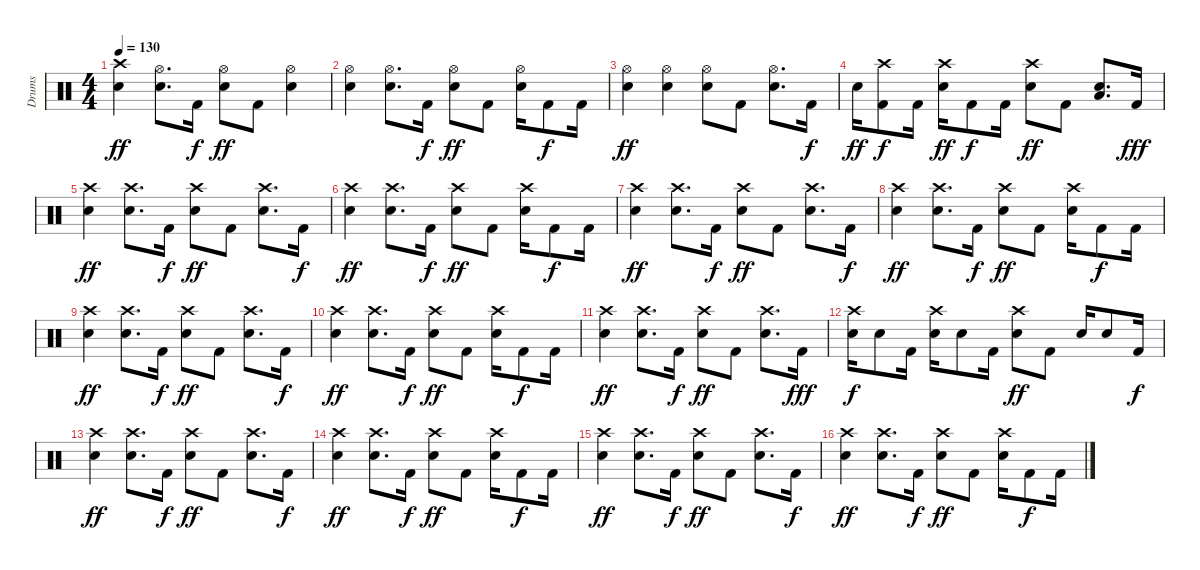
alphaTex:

\track ("Drums" "Drums") {instrument percussion}
\staff {score}
\articulation defaults
\ts (4 4)
\tempo 130
\clef neutral
\ks c
("Crash high (hit)" "Electric Snare (hit)").4{dy ff} ("Hi-Hat (open)" "Electric Snare (hit)").8{d} "Kick (hit) 2".16{dy f} ("Hi-Hat (open)" "Electric Snare (hit)").8{dy ff} "Kick (hit) 2".8 ("Hi-Hat (open)" "Electric Snare (hit)").4 |
("Hi-Hat (open)" "Electric Snare (hit)").4 ("Hi-Hat (open)" "Electric Snare (hit)").8{d} "Kick (hit) 2".16{dy f} ("Hi-Hat (open)" "Electric Snare (hit)").8{dy ff} "Kick (hit) 2".8 ("Hi-Hat (open)" "Electric Snare (hit)").16 "Kick (hit) 2".8{dy f} "Kick (hit) 2".16 |
("Hi-Hat (open)" "Electric Snare (hit)").4{dy ff} ("Hi-Hat (open)" "Electric Snare (hit)").4 ("Hi-Hat (open)" "Electric Snare (hit)").8 "Kick (hit) 2".8 ("Hi-Hat (open)" "Electric Snare (hit)").8{d} "Kick (hit) 2".16{dy f} |
"Electric Snare (hit)".16{dy ff} ("Crash high (hit)" "Kick (hit) 2").8{dy f} "Kick (hit) 2".16 ("Crash high (hit)" "Electric Snare (hit)").16{dy ff} "Kick (hit) 2".8{dy f} "Kick (hit) 2".16 ("Crash high (hit)" "Electric Snare (hit)").8{dy ff} "Kick (hit) 2".8 ("Electric Snare (hit)" "Low Tom (hit)").8{d} "Kick (hit) 2".16{dy fff} |
("Crash high (hit)" "Electric Snare (hit)").4{dy ff} ("Crash high (hit)" "Electric Snare (hit)").8{d} "Kick (hit) 2".16{dy f} ("Crash high (hit)" "Electric Snare (hit)").8{dy ff} "Kick (hit) 2".8 ("Crash high (hit)" "Electric Snare (hit)").8{d} "Kick (hit) 2".16{dy f} |
("Crash high (hit)" "Electric Snare (hit)").4{dy ff} ("Crash high (hit)" "Electric Snare (hit)").8{d} "Kick (hit) 2".16{dy f} ("Crash high (hit)" "Electric Snare (hit)").8{dy ff} "Kick (hit) 2".8 ("Crash high (hit)" "Electric Snare (hit)").16 "Kick (hit) 2".8{dy f} "Kick (hit) 2".16 |
("Crash high (hit)" "Electric Snare (hit)").4{dy ff} ("Crash high (hit)" "Electric Snare (hit)").8{d} "Kick (hit) 2".16{dy f} ("Crash high (hit)" "Electric Snare (hit)").8{dy ff} "Kick (hit) 2".8 ("Crash high (hit)" "Electric Snare (hit)").8{d} "Kick (hit) 2".16{dy f} |
("Crash high (hit)" "Electric Snare (hit)").4{dy ff} ("Crash high (hit)" "Electric Snare (hit)").8{d} "Kick (hit) 2".16{dy f} ("Crash high (hit)" "Electric Snare (hit)").8{dy ff} "Kick (hit) 2".8 ("Crash high (hit)" "Electric Snare (hit)").16 "Kick (hit) 2".8{dy f} "Kick (hit) 2".16 |
("Crash high (hit)" "Electric Snare (hit)").4{dy ff} ("Crash high (hit)" "Electric Snare (hit)").8{d} "Kick (hit) 2".16{dy f} ("Crash high (hit)" "Electric Snare (hit)").8{dy ff} "Kick (hit) 2".8 ("Crash high (hit)" "Electric Snare (hit)").8{d} "Kick (hit) 2".16{dy f} |
("Crash high (hit)" "Electric Snare (hit)").4{dy ff} ("Crash high (hit)" "Electric Snare (hit)").8{d} "Kick (hit) 2".16{dy f} ("Crash high (hit)" "Electric Snare (hit)").8{dy ff} "Kick (hit) 2".8 ("Crash high (hit)" "Electric Snare (hit)").16 "Kick (hit) 2".8{dy f} "Kick (hit) 2".16 |
("Crash high (hit)" "Electric Snare (hit)").4{dy ff} ("Crash high (hit)" "Electric Snare (hit)").8{d} "Kick (hit) 2".16{dy f} ("Crash high (hit)" "Electric Snare (hit)").8{dy ff} "Kick (hit) 2".8 ("Crash high (hit)" "Electric Snare (hit)").8{d} "Kick (hit) 2".16{dy fff} |
("Crash high (hit)" "Electric Snare (hit)").16{dy f} "Electric Snare (hit)".8 "Kick (hit) 2".16 ("Crash high (hit)" "Electric Snare (hit)").16 "Electric Snare (hit)".8 "Kick (hit) 2".16 ("Crash high (hit)" "Electric Snare (hit)").8{dy ff} "Kick (hit) 2".8 "Electric Snare (hit)".16 "Electric Snare (hit)".8 "Kick (hit) 2".16{dy f} |
("Crash high (hit)" "Electric Snare (hit)").4{dy ff} ("Crash high (hit)" "Electric Snare (hit)").8{d} "Kick (hit) 2".16{dy f} ("Crash high (hit)" "Electric Snare (hit)").8{dy ff} "Kick (hit) 2".8 ("Crash high (hit)" "Electric Snare (hit)").8{d} "Kick (hit) 2".16{dy f} |
("Crash high (hit)" "Electric Snare (hit)").4{dy ff} ("Crash high (hit)" "Electric Snare (hit)").8{d} "Kick (hit) 2".16{dy f} ("Crash high (hit)" "Electric Snare (hit)").8{dy ff} "Kick (hit) 2".8 ("Crash high (hit)" "Electric Snare (hit)").16 "Kick (hit) 2".8{dy f} "Kick (hit) 2".16 |
("Crash high (hit)" "Electric Snare (hit)").4{dy ff} ("Crash high (hit)" "Electric Snare (hit)").8{d} "Kick (hit) 2".16{dy f} ("Crash high (hit)" "Electric Snare (hit)").8{dy ff} "Kick (hit) 2".8 ("Crash high (hit)" "Electric Snare (hit)").8{d} "Kick (hit) 2".16{dy f} |
("Crash high (hit)" "Electric Snare (hit)").4{dy ff} ("Crash high (hit)" "Electric Snare (hit)").8{d} "Kick (hit) 2".16{dy f} ("Crash high (hit)" "Electric Snare (hit)").8{dy ff} "Kick (hit) 2".8 ("Crash high (hit)" "Electric Snare (hit)").16 "Kick (hit) 2".8{dy f} "Kick (hit) 2".16
